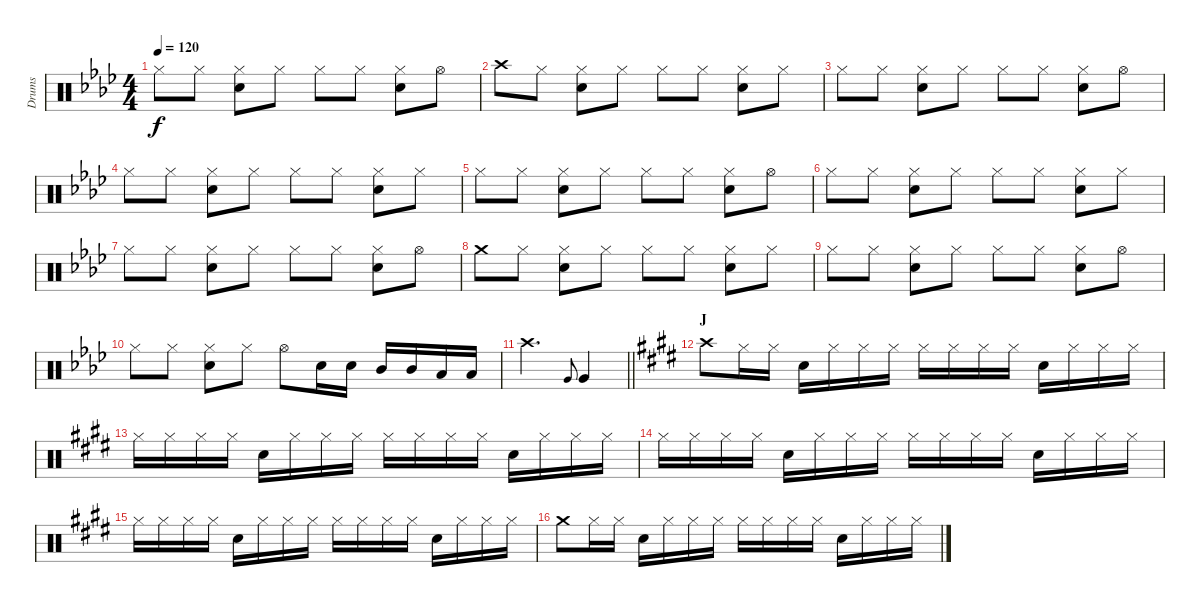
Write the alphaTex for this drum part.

\track ("Drums" "Drums") {instrument percussion}
\staff {score}
\articulation defaults
\ts (4 4)
\tempo 120
\clef neutral
\ks ab "Hi-Hat (closed)".8{dy f} "Hi-Hat (closed)".8
("Hi-Hat (closed)" "Snare (hit) 2").8 "Hi-Hat (closed)".8 "Hi-Hat (closed)".8 "Hi-Hat (closed)".8 ("Hi-Hat (closed)" "Snare (hit) 2").8 "Hi-Hat (open)".8 |
"Crash high (hit)".8 "Hi-Hat (closed)".8 ("Hi-Hat (closed)" "Snare (hit) 2").8 "Hi-Hat (closed)".8 "Hi-Hat (closed)".8 "Hi-Hat (closed)".8 ("Hi-Hat (closed)" "Snare (hit) 2").8 "Hi-Hat (closed)".8 |
"Hi-Hat (closed)".8 "Hi-Hat (closed)".8 ("Hi-Hat (closed)" "Snare (hit) 2").8 "Hi-Hat (closed)".8 "Hi-Hat (closed)".8 "Hi-Hat (closed)".8 ("Hi-Hat (closed)" "Snare (hit) 2").8 "Hi-Hat (open)".8 |
"Hi-Hat (closed)".8 "Hi-Hat (closed)".8 ("Hi-Hat (closed)" "Snare (hit) 2").8 "Hi-Hat (closed)".8 "Hi-Hat (closed)".8 "Hi-Hat (closed)".8 ("Hi-Hat (closed)" "Snare (hit) 2").8 "Hi-Hat (closed)".8 |
"Hi-Hat (closed)".8 "Hi-Hat (closed)".8 ("Hi-Hat (closed)" "Snare (hit) 2").8 "Hi-Hat (closed)".8 "Hi-Hat (closed)".8 "Hi-Hat (closed)".8 ("Hi-Hat (closed)" "Snare (hit) 2").8 "Hi-Hat (open)".8 |
"Hi-Hat (closed)".8 "Hi-Hat (closed)".8 ("Hi-Hat (closed)" "Snare (hit) 2").8 "Hi-Hat (closed)".8 "Hi-Hat (closed)".8 "Hi-Hat (closed)".8 ("Hi-Hat (closed)" "Snare (hit) 2").8 "Hi-Hat (closed)".8 |
"Hi-Hat (closed)".8 "Hi-Hat (closed)".8 ("Hi-Hat (closed)" "Snare (hit) 2").8 "Hi-Hat (closed)".8 "Hi-Hat (closed)".8 "Hi-Hat (closed)".8 ("Hi-Hat (closed)" "Snare (hit) 2").8 "Hi-Hat (open)".8 |
"Crash medium (hit)".8 "Hi-Hat (closed)".8 ("Hi-Hat (closed)" "Snare (hit) 2").8 "Hi-Hat (closed)".8 "Hi-Hat (closed)".8 "Hi-Hat (closed)".8 ("Hi-Hat (closed)" "Snare (hit) 2").8 "Hi-Hat (closed)".8 |
"Hi-Hat (closed)".8 "Hi-Hat (closed)".8 ("Hi-Hat (closed)" "Snare (hit) 2").8 "Hi-Hat (closed)".8 "Hi-Hat (closed)".8 "Hi-Hat (closed)".8 ("Hi-Hat (closed)" "Snare (hit) 2").8 "Hi-Hat (open)".8 |
"Hi-Hat (closed)".8 "Hi-Hat (closed)".8 ("Hi-Hat (closed)" "Snare (hit) 2").8 "Hi-Hat (closed)".8 "Hi-Hat (open)".8 "Snare (hit) 2".16 "Snare (hit) 2".16 "Mid Tom (hit)".16 "Mid Tom (hit)".16 "Low Tom (hit)".16 "Low Tom (hit)".16 |
\barLineRight lightlight "Crash high (hit)".2{d} "Very Low Tom (hit)".8{gr onbeat} "Very Low Tom (hit)".4
|
\section ("" "J")
\ks e "Crash high (hit)".8 "Hi-Hat (closed)".16 "Hi-Hat (closed)".16 "Snare (hit) 2".16 "Hi-Hat (closed)".16 "Hi-Hat (closed)".16 "Hi-Hat (closed)".16 "Hi-Hat (closed)".16 "Hi-Hat (closed)".16 "Hi-Hat (closed)".16 "Hi-Hat (closed)".16 "Snare (hit) 2".16 "Hi-Hat (closed)".16 "Hi-Hat (closed)".16 "Hi-Hat (closed)".16
|
"Hi-Hat (closed)".16 "Hi-Hat (closed)".16 "Hi-Hat (closed)".16 "Hi-Hat (closed)".16 "Snare (hit) 2".16 "Hi-Hat (closed)".16 "Hi-Hat (closed)".16 "Hi-Hat (closed)".16 "Hi-Hat (closed)".16 "Hi-Hat (closed)".16 "Hi-Hat (closed)".16 "Hi-Hat (closed)".16 "Snare (hit) 2".16 "Hi-Hat (closed)".16 "Hi-Hat (closed)".16 "Hi-Hat (closed)".16 |
"Hi-Hat (closed)".16 "Hi-Hat (closed)".16 "Hi-Hat (closed)".16 "Hi-Hat (closed)".16 "Snare (hit) 2".16 "Hi-Hat (closed)".16 "Hi-Hat (closed)".16 "Hi-Hat (closed)".16 "Hi-Hat (closed)".16 "Hi-Hat (closed)".16 "Hi-Hat (closed)".16 "Hi-Hat (closed)".16 "Snare (hit) 2".16 "Hi-Hat (closed)".16 "Hi-Hat (closed)".16 "Hi-Hat (closed)".16 |
"Hi-Hat (closed)".16 "Hi-Hat (closed)".16 "Hi-Hat (closed)".16 "Hi-Hat (closed)".16 "Snare (hit) 2".16 "Hi-Hat (closed)".16 "Hi-Hat (closed)".16 "Hi-Hat (closed)".16 "Hi-Hat (closed)".16 "Hi-Hat (closed)".16 "Hi-Hat (closed)".16 "Hi-Hat (closed)".16 "Snare (hit) 2".16 "Hi-Hat (closed)".16 "Hi-Hat (closed)".16 "Hi-Hat (closed)".16 |
"Crash medium (hit)".8 "Hi-Hat (closed)".16 "Hi-Hat (closed)".16 "Snare (hit) 2".16 "Hi-Hat (closed)".16 "Hi-Hat (closed)".16 "Hi-Hat (closed)".16 "Hi-Hat (closed)".16 "Hi-Hat (closed)".16 "Hi-Hat (closed)".16 "Hi-Hat (closed)".16 "Snare (hit) 2".16 "Hi-Hat (closed)".16 "Hi-Hat (closed)".16 "Hi-Hat (closed)".16
